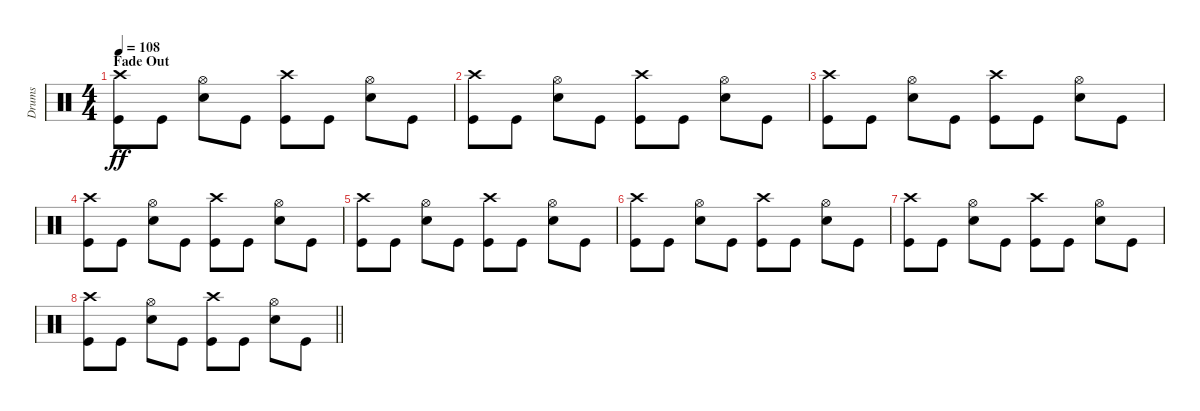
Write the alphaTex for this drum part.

\track ("Drums" "Drums") {instrument percussion}
\staff {score}
\articulation defaults
\ts (4 4)
\section ("" "Fade Out")
\tempo 108
\clef neutral
\ks c
("Crash high (hit)" "Kick (hit)").8{dy ff} "Kick (hit)".8 ("Hi-Hat (open)" "Snare (hit) 2").8 "Kick (hit)".8 ("Crash high (hit)" "Kick (hit)").8 "Kick (hit)".8 ("Hi-Hat (open)" "Snare (hit) 2").8 "Kick (hit)".8 |
("Crash high (hit)" "Kick (hit)").8 "Kick (hit)".8 ("Hi-Hat (open)" "Snare (hit) 2").8 "Kick (hit)".8 ("Crash high (hit)" "Kick (hit)").8 "Kick (hit)".8 ("Hi-Hat (open)" "Snare (hit) 2").8 "Kick (hit)".8 |
("Crash high (hit)" "Kick (hit)").8 "Kick (hit)".8 ("Hi-Hat (open)" "Snare (hit) 2").8 "Kick (hit)".8 ("Crash high (hit)" "Kick (hit)").8 "Kick (hit)".8 ("Hi-Hat (open)" "Snare (hit) 2").8 "Kick (hit)".8 |
("Crash high (hit)" "Kick (hit)").8 "Kick (hit)".8 ("Hi-Hat (open)" "Snare (hit) 2").8 "Kick (hit)".8 ("Crash high (hit)" "Kick (hit)").8 "Kick (hit)".8 ("Hi-Hat (open)" "Snare (hit) 2").8 "Kick (hit)".8 |
("Crash high (hit)" "Kick (hit)").8 "Kick (hit)".8 ("Hi-Hat (open)" "Snare (hit) 2").8 "Kick (hit)".8 ("Crash high (hit)" "Kick (hit)").8 "Kick (hit)".8 ("Hi-Hat (open)" "Snare (hit) 2").8 "Kick (hit)".8 |
("Crash high (hit)" "Kick (hit)").8 "Kick (hit)".8 ("Hi-Hat (open)" "Snare (hit) 2").8 "Kick (hit)".8 ("Crash high (hit)" "Kick (hit)").8 "Kick (hit)".8 ("Hi-Hat (open)" "Snare (hit) 2").8 "Kick (hit)".8 |
("Crash high (hit)" "Kick (hit)").8 "Kick (hit)".8 ("Hi-Hat (open)" "Snare (hit) 2").8 "Kick (hit)".8 ("Crash high (hit)" "Kick (hit)").8 "Kick (hit)".8 ("Hi-Hat (open)" "Snare (hit) 2").8 "Kick (hit)".8 |
\barLineRight lightlight
("Crash high (hit)" "Kick (hit)").8 "Kick (hit)".8 ("Hi-Hat (open)" "Snare (hit) 2").8 "Kick (hit)".8 ("Crash high (hit)" "Kick (hit)").8 "Kick (hit)".8 ("Hi-Hat (open)" "Snare (hit) 2").8 "Kick (hit)".8
